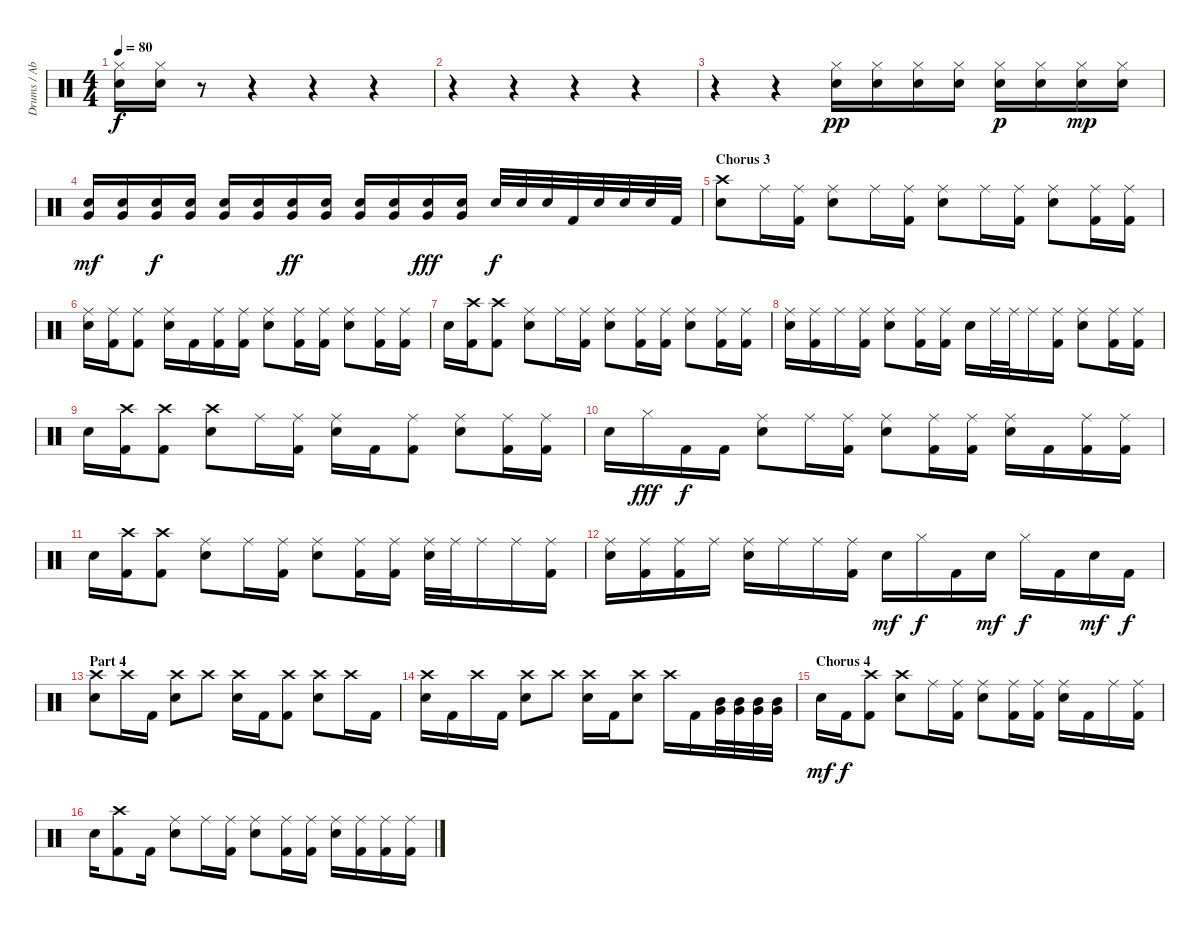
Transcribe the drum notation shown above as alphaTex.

\track ("Drums / Abe Cunningham" "Drums / Ab") {instrument percussion}
\staff {score}
\articulation defaults
\ts (4 4)
\tempo 80
\clef neutral
\ks c
("Hi-Hat (closed)" "Electric Snare (hit)").16{dy f} ("Hi-Hat (closed)" "Electric Snare (hit)").16 r.8 r.4 r.4 r.4 |
r.4 r.4 r.4 r.4 |
r.4 r.4 ("Hi-Hat (closed)" "Electric Snare (hit)").16{dy pp} ("Hi-Hat (closed)" "Electric Snare (hit)").16 ("Hi-Hat (closed)" "Electric Snare (hit)").16 ("Hi-Hat (closed)" "Electric Snare (hit)").16 ("Hi-Hat (closed)" "Electric Snare (hit)").16{dy p} ("Hi-Hat (closed)" "Electric Snare (hit)").16 ("Hi-Hat (closed)" "Electric Snare (hit)").16{dy mp} ("Hi-Hat (closed)" "Electric Snare (hit)").16 |
("Electric Snare (hit)" "Very Low Tom (hit)").16{dy mf} ("Electric Snare (hit)" "Very Low Tom (hit)").16 ("Electric Snare (hit)" "Very Low Tom (hit)").16{dy f} ("Electric Snare (hit)" "Very Low Tom (hit)").16 ("Electric Snare (hit)" "Very Low Tom (hit)").16 ("Electric Snare (hit)" "Very Low Tom (hit)").16 ("Electric Snare (hit)" "Very Low Tom (hit)").16{dy ff} ("Electric Snare (hit)" "Very Low Tom (hit)").16 ("Electric Snare (hit)" "Very Low Tom (hit)").16 ("Electric Snare (hit)" "Very Low Tom (hit)").16 ("Electric Snare (hit)" "Very Low Tom (hit)").16{dy fff} ("Electric Snare (hit)" "Very Low Tom (hit)").16 "Electric Snare (hit)".32{dy f} "Electric Snare (hit)".32 "Electric Snare (hit)".32 "Kick (hit) 2".32 "Electric Snare (hit)".32 "Electric Snare (hit)".32 "Electric Snare (hit)".32 "Kick (hit) 2".32 |
\section ("" "Chorus 3")
("Crash high (hit)" "Electric Snare (hit)").8 "Ride (middle)".16 ("Ride (middle)" "Kick (hit) 2").16 ("Ride (middle)" "Electric Snare (hit)").8 "Ride (middle)".16 ("Ride (middle)" "Kick (hit) 2").16 ("Ride (middle)" "Electric Snare (hit)").8 "Ride (middle)".16 ("Ride (middle)" "Kick (hit) 2").16 ("Ride (middle)" "Electric Snare (hit)").8 ("Ride (middle)" "Kick (hit) 2").16 ("Ride (middle)" "Kick (hit) 2").16 |
("Ride (middle)" "Electric Snare (hit)").16 ("Ride (middle)" "Kick (hit) 2").16 ("Ride (middle)" "Kick (hit) 2").8 ("Ride (middle)" "Electric Snare (hit)").16 "Kick (hit) 2".16 ("Ride (middle)" "Kick (hit) 2").16 ("Ride (middle)" "Kick (hit) 2").16 ("Ride (middle)" "Electric Snare (hit)").8 ("Ride (middle)" "Kick (hit) 2").16 ("Ride (middle)" "Kick (hit) 2").16 ("Ride (middle)" "Electric Snare (hit)").8 ("Ride (middle)" "Kick (hit) 2").16 ("Ride (middle)" "Kick (hit) 2").16 |
"Electric Snare (hit)".16 ("Crash high (hit)" "Kick (hit) 2").16 ("Crash high (hit)" "Kick (hit) 2").8 ("Ride (middle)" "Electric Snare (hit)").8 "Ride (middle)".16 ("Ride (middle)" "Kick (hit) 2").16 ("Ride (middle)" "Electric Snare (hit)").8 ("Ride (middle)" "Kick (hit) 2").16 ("Ride (middle)" "Kick (hit) 2").16 ("Ride (middle)" "Electric Snare (hit)").8 ("Ride (middle)" "Kick (hit) 2").16 ("Ride (middle)" "Kick (hit) 2").16 |
("Ride (middle)" "Electric Snare (hit)").16 ("Ride (middle)" "Kick (hit) 2").16 "Ride (middle)".16 ("Ride (middle)" "Kick (hit) 2").16 ("Ride (middle)" "Electric Snare (hit)").8 ("Ride (middle)" "Kick (hit) 2").16 ("Ride (middle)" "Kick (hit) 2").16 "Electric Snare (hit)".16 "Ride (middle)".32 "Ride (middle)".32 "Ride (middle)".16 ("Ride (middle)" "Kick (hit) 2").16 ("Ride (middle)" "Electric Snare (hit)").8 ("Ride (middle)" "Kick (hit) 2").16 ("Ride (middle)" "Kick (hit) 2").16 |
"Electric Snare (hit)".16 ("Crash high (hit)" "Kick (hit) 2").16 ("Crash high (hit)" "Kick (hit) 2").8 ("Crash high (hit)" "Electric Snare (hit)").8 "Ride (middle)".16 ("Ride (middle)" "Kick (hit) 2").16 ("Ride (middle)" "Electric Snare (hit)").16 "Kick (hit) 2".16 ("Ride (middle)" "Kick (hit) 2").8 ("Ride (middle)" "Electric Snare (hit)").8 ("Ride (middle)" "Kick (hit) 2").16 ("Ride (middle)" "Kick (hit) 2").16 |
"Electric Snare (hit)".16 "Hi-Hat (closed)".16{dy fff} "Kick (hit) 2".16{dy f} "Kick (hit) 2".16 ("Ride (middle)" "Electric Snare (hit)").8 "Ride (middle)".16 ("Ride (middle)" "Kick (hit) 2").16 ("Ride (middle)" "Electric Snare (hit)").8 ("Ride (middle)" "Kick (hit) 2").16 ("Ride (middle)" "Kick (hit) 2").16 ("Ride (middle)" "Electric Snare (hit)").16 "Kick (hit) 2".16 ("Ride (middle)" "Kick (hit) 2").16 ("Ride (middle)" "Kick (hit) 2").16 |
"Electric Snare (hit)".16 ("Crash high (hit)" "Kick (hit) 2").16 ("Crash high (hit)" "Kick (hit) 2").8 ("Ride (middle)" "Electric Snare (hit)").8 "Ride (middle)".16 ("Ride (middle)" "Kick (hit) 2").16 ("Ride (middle)" "Electric Snare (hit)").8 ("Ride (middle)" "Kick (hit) 2").16 ("Ride (middle)" "Kick (hit) 2").16 ("Ride (middle)" "Electric Snare (hit)").32 "Ride (middle)".32 "Ride (middle)".16 "Ride (middle)".16 ("Ride (middle)" "Kick (hit) 2").16 |
("Ride (middle)" "Electric Snare (hit)").16 ("Ride (middle)" "Kick (hit) 2").16 ("Ride (middle)" "Kick (hit) 2").16 "Ride (middle)".16 ("Ride (middle)" "Electric Snare (hit)").16 "Ride (middle)".16 "Ride (middle)".16 ("Ride (middle)" "Kick (hit) 2").16 "Electric Snare (hit)".16{dy mf} "Hi-Hat (closed)".16{dy f} "Kick (hit) 2".16 "Electric Snare (hit)".16{dy mf} "Hi-Hat (closed)".16{dy f} "Kick (hit) 2".16 "Electric Snare (hit)".16{dy mf} "Kick (hit) 2".16{dy f} |
\section ("" "Part 4")
("Crash high (hit)" "Electric Snare (hit)").8 "Crash high (hit)".16 "Kick (hit) 2".16 ("Crash high (hit)" "Electric Snare (hit)").8 "Crash high (hit)".8 ("Crash high (hit)" "Electric Snare (hit)").16 "Kick (hit) 2".16 ("Crash high (hit)" "Kick (hit) 2").8 ("Crash high (hit)" "Electric Snare (hit)").8 "Crash high (hit)".16 "Kick (hit) 2".16 |
("Crash high (hit)" "Electric Snare (hit)").16 "Kick (hit) 2".16 "Crash high (hit)".16 "Kick (hit) 2".16 ("Crash high (hit)" "Electric Snare (hit)").8 "Crash high (hit)".8 ("Crash high (hit)" "Electric Snare (hit)").16 "Kick (hit) 2".16 ("Crash high (hit)" "Electric Snare (hit)").8 "Crash high (hit)".16 "Kick (hit) 2".16 ("Mid Tom (hit)" "Very Low Tom (hit)").32 ("Mid Tom (hit)" "Very Low Tom (hit)").32 ("Mid Tom (hit)" "Very Low Tom (hit)").32 ("Mid Tom (hit)" "Very Low Tom (hit)").32 |
\section ("" "Chorus 4")
"Electric Snare (hit)".16{dy mf} "Kick (hit) 2".16{dy f} ("Crash high (hit)" "Kick (hit) 2").8 ("Crash high (hit)" "Electric Snare (hit)").8 "Ride (middle)".16 ("Ride (middle)" "Kick (hit) 2").16 ("Ride (middle)" "Electric Snare (hit)").8 ("Ride (middle)" "Kick (hit) 2").16 ("Ride (middle)" "Kick (hit) 2").16 ("Ride (middle)" "Electric Snare (hit)").16 "Kick (hit) 2".16 "Ride (middle)".16 ("Ride (middle)" "Kick (hit) 2").16 |
"Electric Snare (hit)".16 ("Crash high (hit)" "Kick (hit) 2").8 "Kick (hit) 2".16 ("Ride (middle)" "Electric Snare (hit)").8 "Ride (middle)".16 ("Ride (middle)" "Kick (hit) 2").16 ("Ride (middle)" "Electric Snare (hit)").8 ("Ride (middle)" "Kick (hit) 2").16 ("Ride (middle)" "Kick (hit) 2").16 ("Ride (middle)" "Electric Snare (hit)").16 ("Ride (middle)" "Kick (hit) 2").16 ("Ride (middle)" "Kick (hit) 2").16 ("Ride (middle)" "Kick (hit) 2").16
